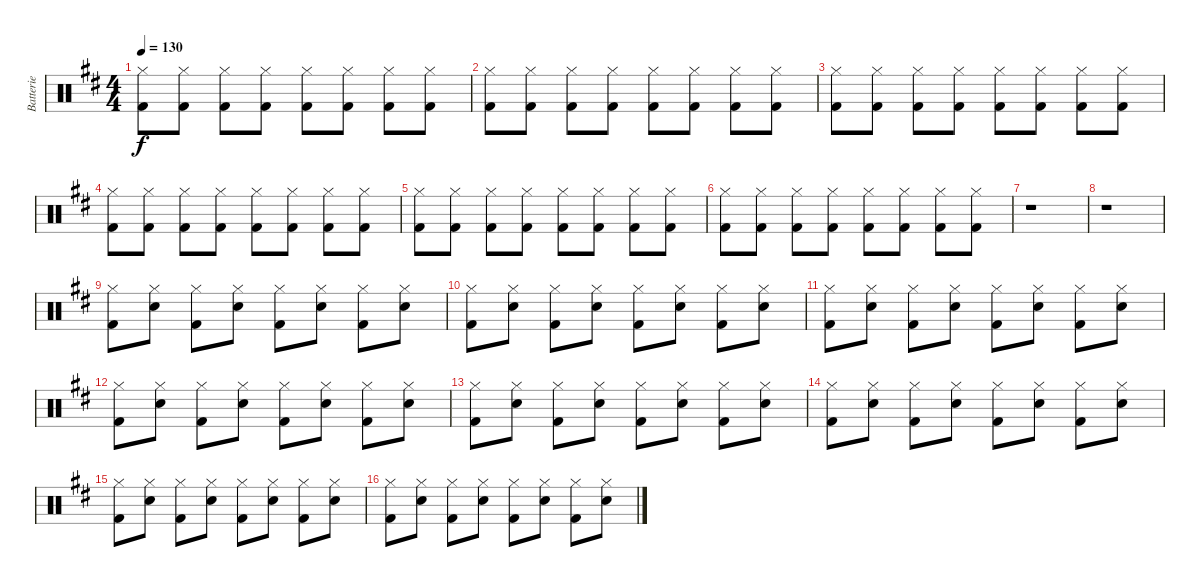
\track ("Batterie" "Batterie") {instrument percussion}
\staff {score}
\articulation defaults
\ts (4 4)
\tempo 130
\clef neutral
\ks d
("Hi-Hat (closed)" "Kick (hit) 2").8{dy f} ("Hi-Hat (closed)" "Kick (hit) 2").8 ("Hi-Hat (closed)" "Kick (hit) 2").8 ("Hi-Hat (closed)" "Kick (hit) 2").8 ("Hi-Hat (closed)" "Kick (hit) 2").8 ("Hi-Hat (closed)" "Kick (hit) 2").8 ("Hi-Hat (closed)" "Kick (hit) 2").8 ("Hi-Hat (closed)" "Kick (hit) 2").8 |
("Hi-Hat (closed)" "Kick (hit) 2").8 ("Hi-Hat (closed)" "Kick (hit) 2").8 ("Hi-Hat (closed)" "Kick (hit) 2").8 ("Hi-Hat (closed)" "Kick (hit) 2").8 ("Hi-Hat (closed)" "Kick (hit) 2").8 ("Hi-Hat (closed)" "Kick (hit) 2").8 ("Hi-Hat (closed)" "Kick (hit) 2").8 ("Hi-Hat (closed)" "Kick (hit) 2").8 |
("Hi-Hat (closed)" "Kick (hit) 2").8 ("Hi-Hat (closed)" "Kick (hit) 2").8 ("Hi-Hat (closed)" "Kick (hit) 2").8 ("Hi-Hat (closed)" "Kick (hit) 2").8 ("Hi-Hat (closed)" "Kick (hit) 2").8 ("Hi-Hat (closed)" "Kick (hit) 2").8 ("Hi-Hat (closed)" "Kick (hit) 2").8 ("Hi-Hat (closed)" "Kick (hit) 2").8 |
("Hi-Hat (closed)" "Kick (hit) 2").8 ("Hi-Hat (closed)" "Kick (hit) 2").8 ("Hi-Hat (closed)" "Kick (hit) 2").8 ("Hi-Hat (closed)" "Kick (hit) 2").8 ("Hi-Hat (closed)" "Kick (hit) 2").8 ("Hi-Hat (closed)" "Kick (hit) 2").8 ("Hi-Hat (closed)" "Kick (hit) 2").8 ("Hi-Hat (closed)" "Kick (hit) 2").8 |
("Hi-Hat (closed)" "Kick (hit) 2").8 ("Hi-Hat (closed)" "Kick (hit) 2").8 ("Hi-Hat (closed)" "Kick (hit) 2").8 ("Hi-Hat (closed)" "Kick (hit) 2").8 ("Hi-Hat (closed)" "Kick (hit) 2").8 ("Hi-Hat (closed)" "Kick (hit) 2").8 ("Hi-Hat (closed)" "Kick (hit) 2").8 ("Hi-Hat (closed)" "Kick (hit) 2").8 |
("Hi-Hat (closed)" "Kick (hit) 2").8 ("Hi-Hat (closed)" "Kick (hit) 2").8 ("Hi-Hat (closed)" "Kick (hit) 2").8 ("Hi-Hat (closed)" "Kick (hit) 2").8 ("Hi-Hat (closed)" "Kick (hit) 2").8 ("Hi-Hat (closed)" "Kick (hit) 2").8 ("Hi-Hat (closed)" "Kick (hit) 2").8 ("Hi-Hat (closed)" "Kick (hit) 2").8 |
r.1 |
r.1 |
("Hi-Hat (closed)" "Kick (hit) 2").8 ("Hi-Hat (closed)" "Snare (hit) 2").8 ("Hi-Hat (closed)" "Kick (hit) 2").8 ("Hi-Hat (closed)" "Snare (hit) 2").8 ("Hi-Hat (closed)" "Kick (hit) 2").8 ("Hi-Hat (closed)" "Snare (hit) 2").8 ("Hi-Hat (closed)" "Kick (hit) 2").8 ("Hi-Hat (closed)" "Snare (hit) 2").8 |
("Hi-Hat (closed)" "Kick (hit) 2").8 ("Hi-Hat (closed)" "Snare (hit) 2").8 ("Hi-Hat (closed)" "Kick (hit) 2").8 ("Hi-Hat (closed)" "Snare (hit) 2").8 ("Hi-Hat (closed)" "Kick (hit) 2").8 ("Hi-Hat (closed)" "Snare (hit) 2").8 ("Hi-Hat (closed)" "Kick (hit) 2").8 ("Hi-Hat (closed)" "Snare (hit) 2").8 |
("Hi-Hat (closed)" "Kick (hit) 2").8 ("Hi-Hat (closed)" "Snare (hit) 2").8 ("Hi-Hat (closed)" "Kick (hit) 2").8 ("Hi-Hat (closed)" "Snare (hit) 2").8 ("Hi-Hat (closed)" "Kick (hit) 2").8 ("Hi-Hat (closed)" "Snare (hit) 2").8 ("Hi-Hat (closed)" "Kick (hit) 2").8 ("Hi-Hat (closed)" "Snare (hit) 2").8 |
("Hi-Hat (closed)" "Kick (hit) 2").8 ("Hi-Hat (closed)" "Snare (hit) 2").8 ("Hi-Hat (closed)" "Kick (hit) 2").8 ("Hi-Hat (closed)" "Snare (hit) 2").8 ("Hi-Hat (closed)" "Kick (hit) 2").8 ("Hi-Hat (closed)" "Snare (hit) 2").8 ("Hi-Hat (closed)" "Kick (hit) 2").8 ("Hi-Hat (closed)" "Snare (hit) 2").8 |
("Hi-Hat (closed)" "Kick (hit) 2").8 ("Hi-Hat (closed)" "Snare (hit) 2").8 ("Hi-Hat (closed)" "Kick (hit) 2").8 ("Hi-Hat (closed)" "Snare (hit) 2").8 ("Hi-Hat (closed)" "Kick (hit) 2").8 ("Hi-Hat (closed)" "Snare (hit) 2").8 ("Hi-Hat (closed)" "Kick (hit) 2").8 ("Hi-Hat (closed)" "Snare (hit) 2").8 |
("Hi-Hat (closed)" "Kick (hit) 2").8 ("Hi-Hat (closed)" "Snare (hit) 2").8 ("Hi-Hat (closed)" "Kick (hit) 2").8 ("Hi-Hat (closed)" "Snare (hit) 2").8 ("Hi-Hat (closed)" "Kick (hit) 2").8 ("Hi-Hat (closed)" "Snare (hit) 2").8 ("Hi-Hat (closed)" "Kick (hit) 2").8 ("Hi-Hat (closed)" "Snare (hit) 2").8 |
("Hi-Hat (closed)" "Kick (hit) 2").8 ("Hi-Hat (closed)" "Snare (hit) 2").8 ("Hi-Hat (closed)" "Kick (hit) 2").8 ("Hi-Hat (closed)" "Snare (hit) 2").8 ("Hi-Hat (closed)" "Kick (hit) 2").8 ("Hi-Hat (closed)" "Snare (hit) 2").8 ("Hi-Hat (closed)" "Kick (hit) 2").8 ("Hi-Hat (closed)" "Snare (hit) 2").8 |
("Hi-Hat (closed)" "Kick (hit) 2").8 ("Hi-Hat (closed)" "Snare (hit) 2").8 ("Hi-Hat (closed)" "Kick (hit) 2").8 ("Hi-Hat (closed)" "Snare (hit) 2").8 ("Hi-Hat (closed)" "Kick (hit) 2").8 ("Hi-Hat (closed)" "Snare (hit) 2").8 ("Hi-Hat (closed)" "Kick (hit) 2").8 ("Hi-Hat (closed)" "Snare (hit) 2").8
